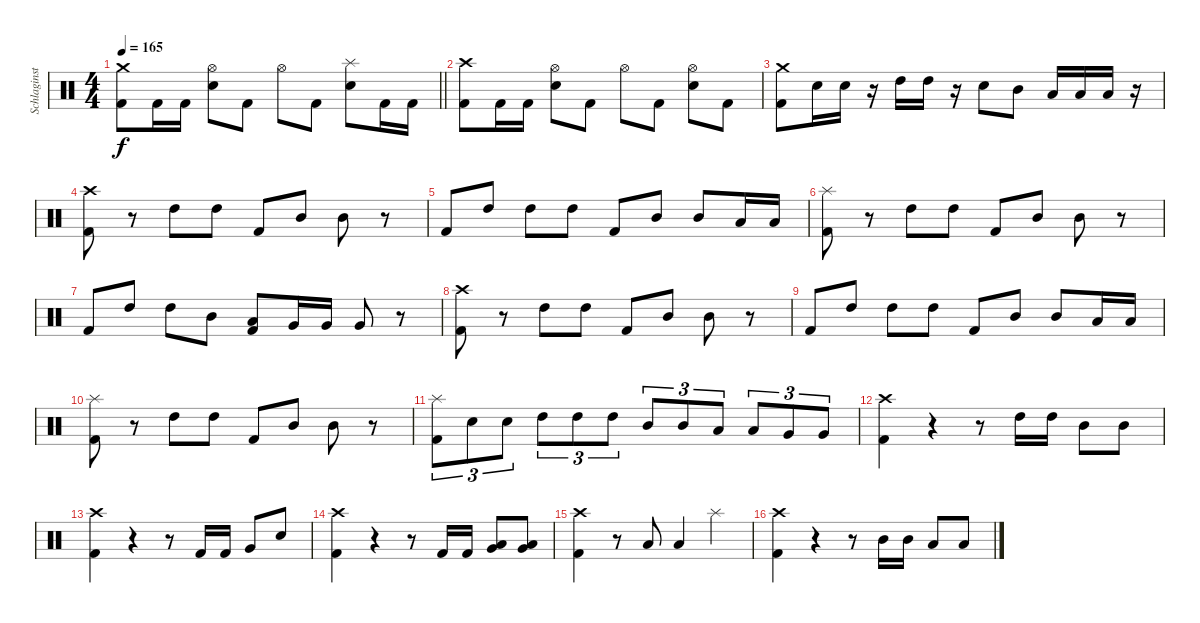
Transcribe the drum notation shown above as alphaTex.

\track ("Schlaginstrumente - Auswahl" "Schlaginst") {instrument percussion}
\staff {score}
\articulation defaults
\ts (4 4)
\tempo 165
\clef neutral
\barLineRight lightlight
\ks c
("Crash medium (hit)" "Kick (hit) 2").8{dy f} "Kick (hit) 2".16 "Kick (hit) 2".16 ("Hi-Hat (open)" "Snare (hit) 2").8 "Kick (hit) 2".8 "Hi-Hat (open)".8 "Kick (hit) 2".8 ("Splash (hit)" "Snare (hit) 2").8 "Kick (hit) 2".16 "Kick (hit) 2".16 |
("Crash high (hit)" "Kick (hit) 2").8 "Kick (hit) 2".16 "Kick (hit) 2".16 ("Hi-Hat (open)" "Snare (hit) 2").8 "Kick (hit) 2".8 "Hi-Hat (open)".8 "Kick (hit) 2".8 ("Hi-Hat (open)" "Snare (hit) 2").8 "Kick (hit) 2".8 |
("Crash medium (hit)" "Kick (hit) 2").8 "Snare (hit) 2".16 "Snare (hit) 2".16 r.16 "High Tom (hit)".16 "High Tom (hit)".16 r.16 "Snare (hit) 2".8 "Mid Tom (hit)".8 "Low Tom (hit)".16 "Low Tom (hit)".16 "Low Tom (hit)".16 r.16 |
("Crash high (hit)" "Kick (hit) 2").8 r.8 "High Tom (hit)".8 "High Tom (hit)".8 "Kick (hit) 2".8 "Mid Tom (hit)".8 "Mid Tom (hit)".8 r.8 |
"Kick (hit) 2".8 "High Tom (hit)".8 "High Tom (hit)".8 "High Tom (hit)".8 "Kick (hit) 2".8 "Mid Tom (hit)".8 "Mid Tom (hit)".8 "Low Tom (hit)".16 "Low Tom (hit)".16 |
("Splash (hit)" "Kick (hit) 2").8 r.8 "High Tom (hit)".8 "High Tom (hit)".8 "Kick (hit) 2".8 "Mid Tom (hit)".8 "Mid Tom (hit)".8 r.8 |
"Kick (hit) 2".8 "High Tom (hit)".8 "High Tom (hit)".8 "Mid Tom (hit)".8 ("Low Tom (hit)" "Kick (hit) 2").8 "Very Low Tom (hit)".16 "Very Low Tom (hit)".16 "Very Low Tom (hit)".8 r.8 |
("Crash high (hit)" "Kick (hit) 2").8 r.8 "High Tom (hit)".8 "High Tom (hit)".8 "Kick (hit) 2".8 "Mid Tom (hit)".8 "Mid Tom (hit)".8 r.8 |
"Kick (hit) 2".8 "High Tom (hit)".8 "High Tom (hit)".8 "High Tom (hit)".8 "Kick (hit) 2".8 "Mid Tom (hit)".8 "Mid Tom (hit)".8 "Low Tom (hit)".16 "Low Tom (hit)".16 |
("Splash (hit)" "Kick (hit) 2").8 r.8 "High Tom (hit)".8 "High Tom (hit)".8 "Kick (hit) 2".8 "Mid Tom (hit)".8 "Mid Tom (hit)".8 r.8 |
("Splash (hit)" "Kick (hit) 2").8{tu (3 2)} "Snare (hit) 2".8{tu (3 2)} "Snare (hit) 2".8{tu (3 2)} "High Tom (hit)".8{tu (3 2)} "High Tom (hit)".8{tu (3 2)} "High Tom (hit)".8{tu (3 2)} "Mid Tom (hit)".8{tu (3 2)} "Mid Tom (hit)".8{tu (3 2)} "Low Tom (hit)".8{tu (3 2)} "Low Tom (hit)".8{tu (3 2)} "Very Low Tom (hit)".8{tu (3 2)} "Very Low Tom (hit)".8{tu (3 2)} |
("Crash high (hit)" "Kick (hit) 2").4 r.4 r.8 "High Tom (hit)".16 "High Tom (hit)".16 "Mid Tom (hit)".8 "Mid Tom (hit)".8 |
("Crash high (hit)" "Kick (hit) 2").4 r.4 r.8 "Kick (hit) 2".16 "Kick (hit) 2".16 "Very Low Tom (hit)".8 "Snare (hit) 2".8 |
("Crash high (hit)" "Kick (hit) 2").4 r.4 r.8 "Kick (hit) 2".16 "Kick (hit) 2".16 ("Very Low Tom (hit)" "Low Floor Tom (hit)").8 ("Very Low Tom (hit)" "Low Floor Tom (hit)").8 |
("Crash high (hit)" "Kick (hit) 2").4 r.8 "Low Tom (hit)".8 "Low Tom (hit)".4 "Splash (hit)".4 |
("Crash high (hit)" "Kick (hit) 2").4 r.4 r.8 "Mid Tom (hit)".16 "Mid Tom (hit)".16 "Low Tom (hit)".8 "Low Tom (hit)".8
